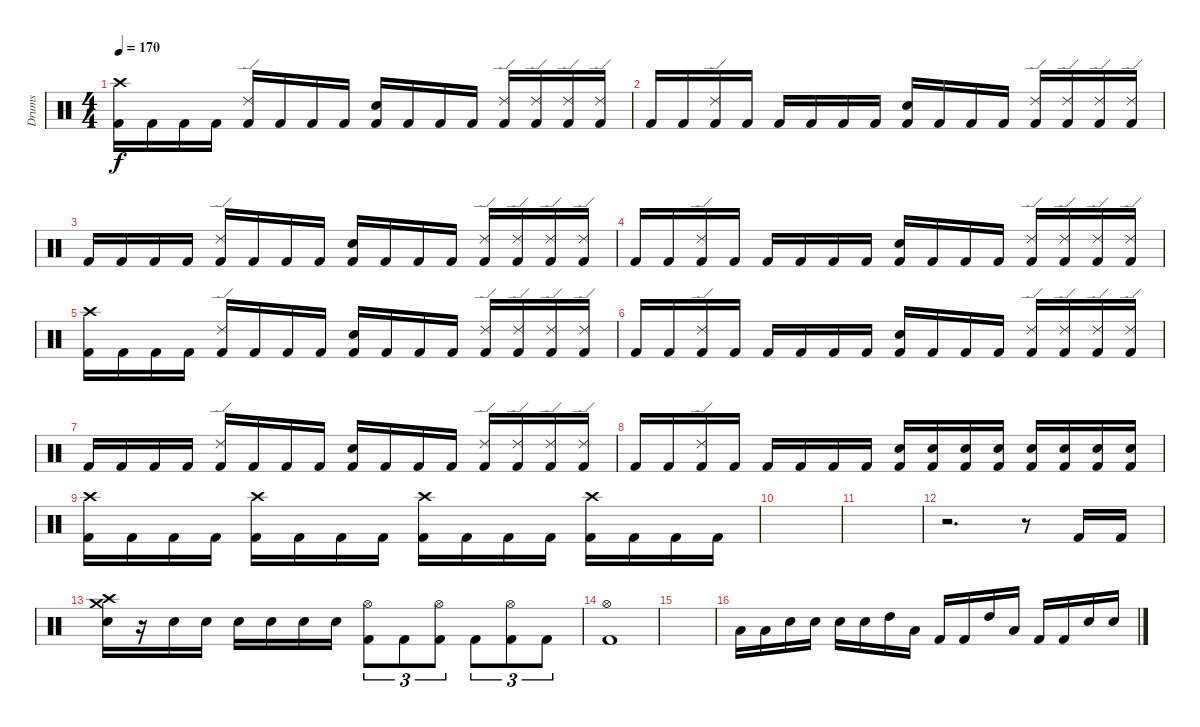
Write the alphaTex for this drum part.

\track ("Drums" "Drums") {instrument percussion}
\staff {score}
\articulation defaults
\ts (4 4)
\tempo 170
\clef neutral
\ks c
("Kick (hit) 2" "Crash high (hit)").16{dy f} "Kick (hit) 2".16 "Kick (hit) 2".16 "Kick (hit) 2".16 ("Kick (hit) 2" "Ride (edge) 2").16 "Kick (hit) 2".16 "Kick (hit) 2".16 "Kick (hit) 2".16 ("Kick (hit) 2" "Electric Snare (hit)").16 "Kick (hit) 2".16 "Kick (hit) 2".16 "Kick (hit) 2".16 ("Kick (hit) 2" "Ride (edge) 2").16 ("Kick (hit) 2" "Ride (edge) 2").16 ("Kick (hit) 2" "Ride (edge) 2").16 ("Kick (hit) 2" "Ride (edge) 2").16 |
"Kick (hit) 2".16 "Kick (hit) 2".16 ("Kick (hit) 2" "Ride (edge) 2").16 "Kick (hit) 2".16 "Kick (hit) 2".16 "Kick (hit) 2".16 "Kick (hit) 2".16 "Kick (hit) 2".16 ("Kick (hit) 2" "Electric Snare (hit)").16 "Kick (hit) 2".16 "Kick (hit) 2".16 "Kick (hit) 2".16 ("Kick (hit) 2" "Ride (edge) 2").16 ("Kick (hit) 2" "Ride (edge) 2").16 ("Kick (hit) 2" "Ride (edge) 2").16 ("Kick (hit) 2" "Ride (edge) 2").16 |
"Kick (hit) 2".16 "Kick (hit) 2".16 "Kick (hit) 2".16 "Kick (hit) 2".16 ("Kick (hit) 2" "Ride (edge) 2").16 "Kick (hit) 2".16 "Kick (hit) 2".16 "Kick (hit) 2".16 ("Kick (hit) 2" "Electric Snare (hit)").16 "Kick (hit) 2".16 "Kick (hit) 2".16 "Kick (hit) 2".16 ("Kick (hit) 2" "Ride (edge) 2").16 ("Kick (hit) 2" "Ride (edge) 2").16 ("Kick (hit) 2" "Ride (edge) 2").16 ("Kick (hit) 2" "Ride (edge) 2").16 |
"Kick (hit) 2".16 "Kick (hit) 2".16 ("Kick (hit) 2" "Ride (edge) 2").16 "Kick (hit) 2".16 "Kick (hit) 2".16 "Kick (hit) 2".16 "Kick (hit) 2".16 "Kick (hit) 2".16 ("Kick (hit) 2" "Electric Snare (hit)").16 "Kick (hit) 2".16 "Kick (hit) 2".16 "Kick (hit) 2".16 ("Kick (hit) 2" "Ride (edge) 2").16 ("Kick (hit) 2" "Ride (edge) 2").16 ("Kick (hit) 2" "Ride (edge) 2").16 ("Kick (hit) 2" "Ride (edge) 2").16 |
("Kick (hit) 2" "Crash high (hit)").16 "Kick (hit) 2".16 "Kick (hit) 2".16 "Kick (hit) 2".16 ("Kick (hit) 2" "Ride (edge) 2").16 "Kick (hit) 2".16 "Kick (hit) 2".16 "Kick (hit) 2".16 ("Kick (hit) 2" "Electric Snare (hit)").16 "Kick (hit) 2".16 "Kick (hit) 2".16 "Kick (hit) 2".16 ("Kick (hit) 2" "Ride (edge) 2").16 ("Kick (hit) 2" "Ride (edge) 2").16 ("Kick (hit) 2" "Ride (edge) 2").16 ("Kick (hit) 2" "Ride (edge) 2").16 |
"Kick (hit) 2".16 "Kick (hit) 2".16 ("Kick (hit) 2" "Ride (edge) 2").16 "Kick (hit) 2".16 "Kick (hit) 2".16 "Kick (hit) 2".16 "Kick (hit) 2".16 "Kick (hit) 2".16 ("Kick (hit) 2" "Electric Snare (hit)").16 "Kick (hit) 2".16 "Kick (hit) 2".16 "Kick (hit) 2".16 ("Kick (hit) 2" "Ride (edge) 2").16 ("Kick (hit) 2" "Ride (edge) 2").16 ("Kick (hit) 2" "Ride (edge) 2").16 ("Kick (hit) 2" "Ride (edge) 2").16 |
"Kick (hit) 2".16 "Kick (hit) 2".16 "Kick (hit) 2".16 "Kick (hit) 2".16 ("Kick (hit) 2" "Ride (edge) 2").16 "Kick (hit) 2".16 "Kick (hit) 2".16 "Kick (hit) 2".16 ("Kick (hit) 2" "Electric Snare (hit)").16 "Kick (hit) 2".16 "Kick (hit) 2".16 "Kick (hit) 2".16 ("Kick (hit) 2" "Ride (edge) 2").16 ("Kick (hit) 2" "Ride (edge) 2").16 ("Kick (hit) 2" "Ride (edge) 2").16 ("Kick (hit) 2" "Ride (edge) 2").16 |
"Kick (hit) 2".16 "Kick (hit) 2".16 ("Kick (hit) 2" "Ride (edge) 2").16 "Kick (hit) 2".16 "Kick (hit) 2".16 "Kick (hit) 2".16 "Kick (hit) 2".16 "Kick (hit) 2".16 ("Kick (hit) 2" "Electric Snare (hit)").16 ("Kick (hit) 2" "Electric Snare (hit)").16 ("Kick (hit) 2" "Electric Snare (hit)").16 ("Kick (hit) 2" "Electric Snare (hit)").16 ("Kick (hit) 2" "Electric Snare (hit)").16 ("Kick (hit) 2" "Electric Snare (hit)").16 ("Kick (hit) 2" "Electric Snare (hit)").16 ("Kick (hit) 2" "Electric Snare (hit)").16 |
("Kick (hit) 2" "Crash high (hit)").16 "Kick (hit) 2".16 "Kick (hit) 2".16 "Kick (hit) 2".16 ("Kick (hit) 2" "Crash high (hit)").16 "Kick (hit) 2".16 "Kick (hit) 2".16 "Kick (hit) 2".16 ("Kick (hit) 2" "Crash high (hit)").16 "Kick (hit) 2".16 "Kick (hit) 2".16 "Kick (hit) 2".16 ("Kick (hit) 2" "Crash high (hit)").16 "Kick (hit) 2".16 "Kick (hit) 2".16 "Kick (hit) 2".16 |
|
|
r.2{d} r.8 "Kick (hit) 2".16 "Kick (hit) 2".16 |
("Electric Snare (hit)" "Crash high (hit)" "Crash medium (hit)").16 r.16 "Electric Snare (hit)".16 "Electric Snare (hit)".16 "Electric Snare (hit)".16 "Electric Snare (hit)".16 "Electric Snare (hit)".16 "Electric Snare (hit)".16 ("Kick (hit) 2" "Hi-Hat (open)").8{tu (3 2)} "Kick (hit) 2".8{tu (3 2)} ("Kick (hit) 2" "Hi-Hat (open)").8{tu (3 2)} "Kick (hit) 2".8{tu (3 2)} ("Kick (hit) 2" "Hi-Hat (open)").8{tu (3 2)} "Kick (hit) 2".8{tu (3 2)} |
("Kick (hit) 2" "Hi-Hat (open)").1 |
|
"Low Tom (hit)".16 "Low Tom (hit)".16 "Electric Snare (hit)".16 "Electric Snare (hit)".16 "Electric Snare (hit)".16 "Electric Snare (hit)".16 "High Tom (hit)".16 "Low Tom (hit)".16 "Kick (hit) 2".16 "Kick (hit) 2".16 "High Tom (hit)".16 "Low Tom (hit)".16 "Kick (hit) 2".16 "Kick (hit) 2".16 "Electric Snare (hit)".16 "Electric Snare (hit)".16
